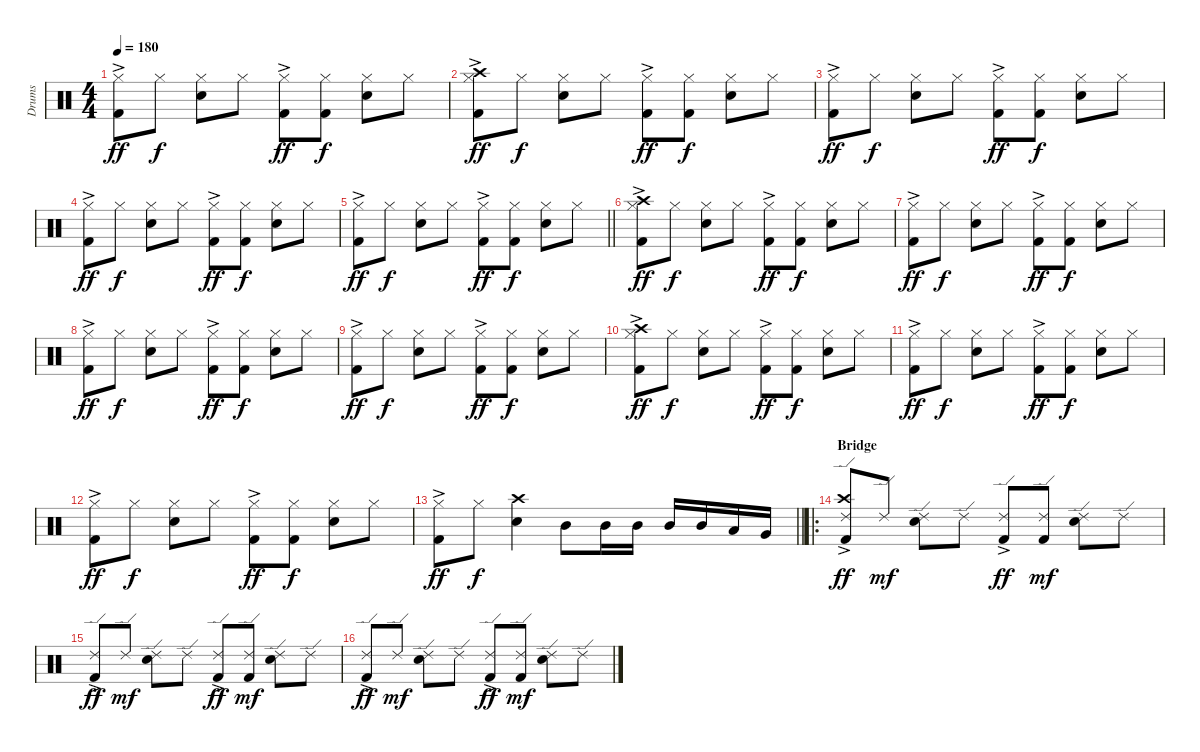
\track ("Drums" "Drums") {instrument percussion}
\staff {score}
\articulation defaults
\ts (4 4)
\tempo 180
\clef neutral
\ks c
("Hi-Hat (closed)"{ac} "Kick (hit) 2").8{dy ff} "Hi-Hat (closed)".8{dy f} ("Hi-Hat (closed)" "Snare (hit) 2").8 "Hi-Hat (closed)".8 ("Hi-Hat (closed)"{ac} "Kick (hit) 2").8{dy ff} ("Hi-Hat (closed)" "Kick (hit) 2").8{dy f} ("Hi-Hat (closed)" "Snare (hit) 2").8 "Hi-Hat (closed)".8 |
("Hi-Hat (closed)"{ac} "Crash high (hit)" "Kick (hit) 2").8{dy ff} "Hi-Hat (closed)".8{dy f} ("Hi-Hat (closed)" "Snare (hit) 2").8 "Hi-Hat (closed)".8 ("Hi-Hat (closed)"{ac} "Kick (hit) 2").8{dy ff} ("Hi-Hat (closed)" "Kick (hit) 2").8{dy f} ("Hi-Hat (closed)" "Snare (hit) 2").8 "Hi-Hat (closed)".8 |
("Hi-Hat (closed)"{ac} "Kick (hit) 2").8{dy ff} "Hi-Hat (closed)".8{dy f} ("Hi-Hat (closed)" "Snare (hit) 2").8 "Hi-Hat (closed)".8 ("Hi-Hat (closed)"{ac} "Kick (hit) 2").8{dy ff} ("Hi-Hat (closed)" "Kick (hit) 2").8{dy f} ("Hi-Hat (closed)" "Snare (hit) 2").8 "Hi-Hat (closed)".8 |
("Hi-Hat (closed)"{ac} "Kick (hit) 2").8{dy ff} "Hi-Hat (closed)".8{dy f} ("Hi-Hat (closed)" "Snare (hit) 2").8 "Hi-Hat (closed)".8 ("Hi-Hat (closed)"{ac} "Kick (hit) 2").8{dy ff} ("Hi-Hat (closed)" "Kick (hit) 2").8{dy f} ("Hi-Hat (closed)" "Snare (hit) 2").8 "Hi-Hat (closed)".8 |
\barLineRight lightlight
("Hi-Hat (closed)"{ac} "Kick (hit) 2").8{dy ff} "Hi-Hat (closed)".8{dy f} ("Hi-Hat (closed)" "Snare (hit) 2").8 "Hi-Hat (closed)".8 ("Hi-Hat (closed)"{ac} "Kick (hit) 2").8{dy ff} ("Hi-Hat (closed)" "Kick (hit) 2").8{dy f} ("Hi-Hat (closed)" "Snare (hit) 2").8 "Hi-Hat (closed)".8 |
("Hi-Hat (closed)"{ac} "Crash high (hit)" "Kick (hit) 2").8{dy ff} "Hi-Hat (closed)".8{dy f} ("Hi-Hat (closed)" "Snare (hit) 2").8 "Hi-Hat (closed)".8 ("Hi-Hat (closed)"{ac} "Kick (hit) 2").8{dy ff} ("Hi-Hat (closed)" "Kick (hit) 2").8{dy f} ("Hi-Hat (closed)" "Snare (hit) 2").8 "Hi-Hat (closed)".8 |
("Hi-Hat (closed)"{ac} "Kick (hit) 2").8{dy ff} "Hi-Hat (closed)".8{dy f} ("Hi-Hat (closed)" "Snare (hit) 2").8 "Hi-Hat (closed)".8 ("Hi-Hat (closed)"{ac} "Kick (hit) 2").8{dy ff} ("Hi-Hat (closed)" "Kick (hit) 2").8{dy f} ("Hi-Hat (closed)" "Snare (hit) 2").8 "Hi-Hat (closed)".8 |
("Hi-Hat (closed)"{ac} "Kick (hit) 2").8{dy ff} "Hi-Hat (closed)".8{dy f} ("Hi-Hat (closed)" "Snare (hit) 2").8 "Hi-Hat (closed)".8 ("Hi-Hat (closed)"{ac} "Kick (hit) 2").8{dy ff} ("Hi-Hat (closed)" "Kick (hit) 2").8{dy f} ("Hi-Hat (closed)" "Snare (hit) 2").8 "Hi-Hat (closed)".8 |
("Hi-Hat (closed)"{ac} "Kick (hit) 2").8{dy ff} "Hi-Hat (closed)".8{dy f} ("Hi-Hat (closed)" "Snare (hit) 2").8 "Hi-Hat (closed)".8 ("Hi-Hat (closed)"{ac} "Kick (hit) 2").8{dy ff} ("Hi-Hat (closed)" "Kick (hit) 2").8{dy f} ("Hi-Hat (closed)" "Snare (hit) 2").8 "Hi-Hat (closed)".8 |
("Hi-Hat (closed)"{ac} "Crash high (hit)" "Kick (hit) 2").8{dy ff} "Hi-Hat (closed)".8{dy f} ("Hi-Hat (closed)" "Snare (hit) 2").8 "Hi-Hat (closed)".8 ("Hi-Hat (closed)"{ac} "Kick (hit) 2").8{dy ff} ("Hi-Hat (closed)" "Kick (hit) 2").8{dy f} ("Hi-Hat (closed)" "Snare (hit) 2").8 "Hi-Hat (closed)".8 |
("Hi-Hat (closed)"{ac} "Kick (hit) 2").8{dy ff} "Hi-Hat (closed)".8{dy f} ("Hi-Hat (closed)" "Snare (hit) 2").8 "Hi-Hat (closed)".8 ("Hi-Hat (closed)"{ac} "Kick (hit) 2").8{dy ff} ("Hi-Hat (closed)" "Kick (hit) 2").8{dy f} ("Hi-Hat (closed)" "Snare (hit) 2").8 "Hi-Hat (closed)".8 |
("Hi-Hat (closed)"{ac} "Kick (hit) 2").8{dy ff} "Hi-Hat (closed)".8{dy f} ("Hi-Hat (closed)" "Snare (hit) 2").8 "Hi-Hat (closed)".8 ("Hi-Hat (closed)"{ac} "Kick (hit) 2").8{dy ff} ("Hi-Hat (closed)" "Kick (hit) 2").8{dy f} ("Hi-Hat (closed)" "Snare (hit) 2").8 "Hi-Hat (closed)".8 |
\barLineRight lightlight
("Hi-Hat (closed)"{ac} "Kick (hit) 2").8{dy ff} "Hi-Hat (closed)".8{dy f} ("Crash high (hit)" "Snare (hit) 2").4 "Mid Tom (hit)".8 "Mid Tom (hit)".16 "Mid Tom (hit)".16 "Mid Tom (hit)".16 "Mid Tom (hit)".16 "Low Tom (hit)".16 "Very Low Tom (hit)".16 |
\ro
\section ("" "Bridge")
("Ride (edge) 2"{ac} "Crash high (hit)" "Kick (hit) 2").8{dy ff} "Ride (edge) 2".8{dy mf} ("Ride (edge) 2" "Snare (hit) 2").8 "Ride (edge) 2".8 ("Ride (edge) 2"{ac} "Kick (hit) 2").8{dy ff} ("Ride (edge) 2" "Kick (hit) 2").8{dy mf} ("Ride (edge) 2" "Snare (hit) 2").8 "Ride (edge) 2".8 |
("Ride (edge) 2"{ac} "Kick (hit) 2").8{dy ff} "Ride (edge) 2".8{dy mf} ("Ride (edge) 2" "Snare (hit) 2").8 "Ride (edge) 2".8 ("Ride (edge) 2"{ac} "Kick (hit) 2").8{dy ff} ("Ride (edge) 2" "Kick (hit) 2").8{dy mf} ("Ride (edge) 2" "Snare (hit) 2").8 "Ride (edge) 2".8 |
("Ride (edge) 2"{ac} "Kick (hit) 2").8{dy ff} "Ride (edge) 2".8{dy mf} ("Ride (edge) 2" "Snare (hit) 2").8 "Ride (edge) 2".8 ("Ride (edge) 2"{ac} "Kick (hit) 2").8{dy ff} ("Ride (edge) 2" "Kick (hit) 2").8{dy mf} ("Ride (edge) 2" "Snare (hit) 2").8 "Ride (edge) 2".8
